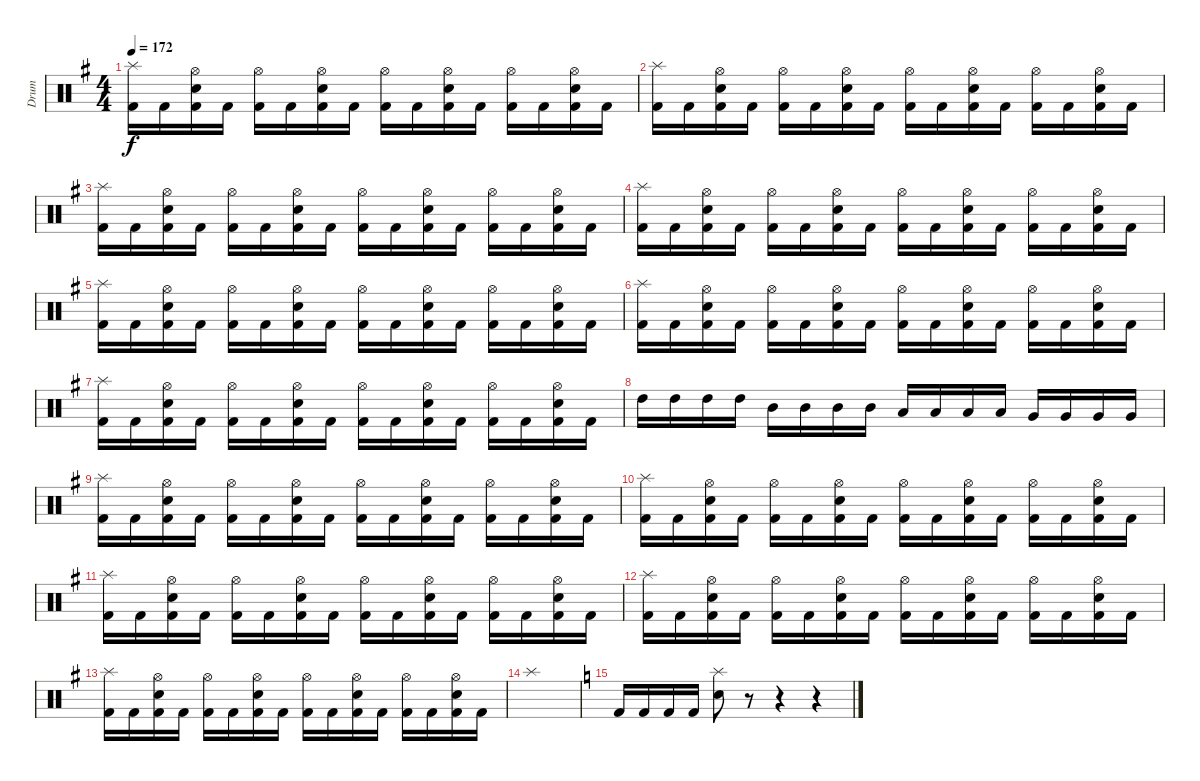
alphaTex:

\track ("Drum" "Drum") {instrument percussion}
\staff {score}
\articulation defaults
\ts (4 4)
\tempo 172
\clef neutral
\ks eminor
("Kick (hit) 2" "Splash (hit)").16{dy f} "Kick (hit) 2".16 ("Kick (hit) 2" "Hi-Hat (open)" "Electric Snare (hit)").16 "Kick (hit) 2".16 ("Kick (hit) 2" "Hi-Hat (open)").16 "Kick (hit) 2".16 ("Kick (hit) 2" "Hi-Hat (open)" "Electric Snare (hit)").16 "Kick (hit) 2".16 ("Kick (hit) 2" "Hi-Hat (open)").16 "Kick (hit) 2".16 ("Kick (hit) 2" "Hi-Hat (open)" "Electric Snare (hit)").16 "Kick (hit) 2".16 ("Kick (hit) 2" "Hi-Hat (open)").16 "Kick (hit) 2".16 ("Kick (hit) 2" "Hi-Hat (open)" "Electric Snare (hit)").16 "Kick (hit) 2".16 |
("Kick (hit) 2" "Splash (hit)").16 "Kick (hit) 2".16 ("Kick (hit) 2" "Hi-Hat (open)" "Electric Snare (hit)").16 "Kick (hit) 2".16 ("Kick (hit) 2" "Hi-Hat (open)").16 "Kick (hit) 2".16 ("Kick (hit) 2" "Hi-Hat (open)" "Electric Snare (hit)").16 "Kick (hit) 2".16 ("Kick (hit) 2" "Hi-Hat (open)").16 "Kick (hit) 2".16 ("Kick (hit) 2" "Hi-Hat (open)" "Electric Snare (hit)").16 "Kick (hit) 2".16 ("Kick (hit) 2" "Hi-Hat (open)").16 "Kick (hit) 2".16 ("Kick (hit) 2" "Hi-Hat (open)" "Electric Snare (hit)").16 "Kick (hit) 2".16 |
("Kick (hit) 2" "Splash (hit)").16 "Kick (hit) 2".16 ("Kick (hit) 2" "Hi-Hat (open)" "Electric Snare (hit)").16 "Kick (hit) 2".16 ("Kick (hit) 2" "Hi-Hat (open)").16 "Kick (hit) 2".16 ("Kick (hit) 2" "Hi-Hat (open)" "Electric Snare (hit)").16 "Kick (hit) 2".16 ("Kick (hit) 2" "Hi-Hat (open)").16 "Kick (hit) 2".16 ("Kick (hit) 2" "Hi-Hat (open)" "Electric Snare (hit)").16 "Kick (hit) 2".16 ("Kick (hit) 2" "Hi-Hat (open)").16 "Kick (hit) 2".16 ("Kick (hit) 2" "Hi-Hat (open)" "Electric Snare (hit)").16 "Kick (hit) 2".16 |
("Kick (hit) 2" "Splash (hit)").16 "Kick (hit) 2".16 ("Kick (hit) 2" "Hi-Hat (open)" "Electric Snare (hit)").16 "Kick (hit) 2".16 ("Kick (hit) 2" "Hi-Hat (open)").16 "Kick (hit) 2".16 ("Kick (hit) 2" "Hi-Hat (open)" "Electric Snare (hit)").16 "Kick (hit) 2".16 ("Kick (hit) 2" "Hi-Hat (open)").16 "Kick (hit) 2".16 ("Kick (hit) 2" "Hi-Hat (open)" "Electric Snare (hit)").16 "Kick (hit) 2".16 ("Kick (hit) 2" "Hi-Hat (open)").16 "Kick (hit) 2".16 ("Kick (hit) 2" "Hi-Hat (open)" "Electric Snare (hit)").16 "Kick (hit) 2".16 |
("Kick (hit) 2" "Splash (hit)").16 "Kick (hit) 2".16 ("Kick (hit) 2" "Hi-Hat (open)" "Electric Snare (hit)").16 "Kick (hit) 2".16 ("Kick (hit) 2" "Hi-Hat (open)").16 "Kick (hit) 2".16 ("Kick (hit) 2" "Hi-Hat (open)" "Electric Snare (hit)").16 "Kick (hit) 2".16 ("Kick (hit) 2" "Hi-Hat (open)").16 "Kick (hit) 2".16 ("Kick (hit) 2" "Hi-Hat (open)" "Electric Snare (hit)").16 "Kick (hit) 2".16 ("Kick (hit) 2" "Hi-Hat (open)").16 "Kick (hit) 2".16 ("Kick (hit) 2" "Hi-Hat (open)" "Electric Snare (hit)").16 "Kick (hit) 2".16 |
("Kick (hit) 2" "Splash (hit)").16 "Kick (hit) 2".16 ("Kick (hit) 2" "Hi-Hat (open)" "Electric Snare (hit)").16 "Kick (hit) 2".16 ("Kick (hit) 2" "Hi-Hat (open)").16 "Kick (hit) 2".16 ("Kick (hit) 2" "Hi-Hat (open)" "Electric Snare (hit)").16 "Kick (hit) 2".16 ("Kick (hit) 2" "Hi-Hat (open)").16 "Kick (hit) 2".16 ("Kick (hit) 2" "Hi-Hat (open)" "Electric Snare (hit)").16 "Kick (hit) 2".16 ("Kick (hit) 2" "Hi-Hat (open)").16 "Kick (hit) 2".16 ("Kick (hit) 2" "Hi-Hat (open)" "Electric Snare (hit)").16 "Kick (hit) 2".16 |
("Kick (hit) 2" "Splash (hit)").16 "Kick (hit) 2".16 ("Kick (hit) 2" "Hi-Hat (open)" "Electric Snare (hit)").16 "Kick (hit) 2".16 ("Kick (hit) 2" "Hi-Hat (open)").16 "Kick (hit) 2".16 ("Kick (hit) 2" "Hi-Hat (open)" "Electric Snare (hit)").16 "Kick (hit) 2".16 ("Kick (hit) 2" "Hi-Hat (open)").16 "Kick (hit) 2".16 ("Kick (hit) 2" "Hi-Hat (open)" "Electric Snare (hit)").16 "Kick (hit) 2".16 ("Kick (hit) 2" "Hi-Hat (open)").16 "Kick (hit) 2".16 ("Kick (hit) 2" "Hi-Hat (open)" "Electric Snare (hit)").16 "Kick (hit) 2".16 |
"High Tom (hit)".16 "High Tom (hit)".16 "High Tom (hit)".16 "High Tom (hit)".16 "Mid Tom (hit)".16 "Mid Tom (hit)".16 "Mid Tom (hit)".16 "Mid Tom (hit)".16 "Low Tom (hit)".16 "Low Tom (hit)".16 "Low Tom (hit)".16 "Low Tom (hit)".16 "Very Low Tom (hit)".16 "Very Low Tom (hit)".16 "Very Low Tom (hit)".16 "Very Low Tom (hit)".16 |
("Kick (hit) 2" "Splash (hit)").16 "Kick (hit) 2".16 ("Kick (hit) 2" "Hi-Hat (open)" "Electric Snare (hit)").16 "Kick (hit) 2".16 ("Kick (hit) 2" "Hi-Hat (open)").16 "Kick (hit) 2".16 ("Kick (hit) 2" "Hi-Hat (open)" "Electric Snare (hit)").16 "Kick (hit) 2".16 ("Kick (hit) 2" "Hi-Hat (open)").16 "Kick (hit) 2".16 ("Kick (hit) 2" "Hi-Hat (open)" "Electric Snare (hit)").16 "Kick (hit) 2".16 ("Kick (hit) 2" "Hi-Hat (open)").16 "Kick (hit) 2".16 ("Kick (hit) 2" "Hi-Hat (open)" "Electric Snare (hit)").16 "Kick (hit) 2".16 |
("Kick (hit) 2" "Splash (hit)").16 "Kick (hit) 2".16 ("Kick (hit) 2" "Hi-Hat (open)" "Electric Snare (hit)").16 "Kick (hit) 2".16 ("Kick (hit) 2" "Hi-Hat (open)").16 "Kick (hit) 2".16 ("Kick (hit) 2" "Hi-Hat (open)" "Electric Snare (hit)").16 "Kick (hit) 2".16 ("Kick (hit) 2" "Hi-Hat (open)").16 "Kick (hit) 2".16 ("Kick (hit) 2" "Hi-Hat (open)" "Electric Snare (hit)").16 "Kick (hit) 2".16 ("Kick (hit) 2" "Hi-Hat (open)").16 "Kick (hit) 2".16 ("Kick (hit) 2" "Hi-Hat (open)" "Electric Snare (hit)").16 "Kick (hit) 2".16 |
("Kick (hit) 2" "Splash (hit)").16 "Kick (hit) 2".16 ("Kick (hit) 2" "Hi-Hat (open)" "Electric Snare (hit)").16 "Kick (hit) 2".16 ("Kick (hit) 2" "Hi-Hat (open)").16 "Kick (hit) 2".16 ("Kick (hit) 2" "Hi-Hat (open)" "Electric Snare (hit)").16 "Kick (hit) 2".16 ("Kick (hit) 2" "Hi-Hat (open)").16 "Kick (hit) 2".16 ("Kick (hit) 2" "Hi-Hat (open)" "Electric Snare (hit)").16 "Kick (hit) 2".16 ("Kick (hit) 2" "Hi-Hat (open)").16 "Kick (hit) 2".16 ("Kick (hit) 2" "Hi-Hat (open)" "Electric Snare (hit)").16 "Kick (hit) 2".16 |
("Kick (hit) 2" "Splash (hit)").16 "Kick (hit) 2".16 ("Kick (hit) 2" "Hi-Hat (open)" "Electric Snare (hit)").16 "Kick (hit) 2".16 ("Kick (hit) 2" "Hi-Hat (open)").16 "Kick (hit) 2".16 ("Kick (hit) 2" "Hi-Hat (open)" "Electric Snare (hit)").16 "Kick (hit) 2".16 ("Kick (hit) 2" "Hi-Hat (open)").16 "Kick (hit) 2".16 ("Kick (hit) 2" "Hi-Hat (open)" "Electric Snare (hit)").16 "Kick (hit) 2".16 ("Kick (hit) 2" "Hi-Hat (open)").16 "Kick (hit) 2".16 ("Kick (hit) 2" "Hi-Hat (open)" "Electric Snare (hit)").16 "Kick (hit) 2".16 |
("Kick (hit) 2" "Splash (hit)").16 "Kick (hit) 2".16 ("Kick (hit) 2" "Hi-Hat (open)" "Electric Snare (hit)").16 "Kick (hit) 2".16 ("Kick (hit) 2" "Hi-Hat (open)").16 "Kick (hit) 2".16 ("Kick (hit) 2" "Hi-Hat (open)" "Electric Snare (hit)").16 "Kick (hit) 2".16 ("Kick (hit) 2" "Hi-Hat (open)").16 "Kick (hit) 2".16 ("Kick (hit) 2" "Hi-Hat (open)" "Electric Snare (hit)").16 "Kick (hit) 2".16 ("Kick (hit) 2" "Hi-Hat (open)").16 "Kick (hit) 2".16 ("Kick (hit) 2" "Hi-Hat (open)" "Electric Snare (hit)").16 "Kick (hit) 2".16 |
"Splash (hit)".1 |
\ks c "Kick (hit) 2".16 "Kick (hit) 2".16 "Kick (hit) 2".16 "Kick (hit) 2".16
("Splash (hit)" "Electric Snare (hit)").8 r.8 r.4 r.4
